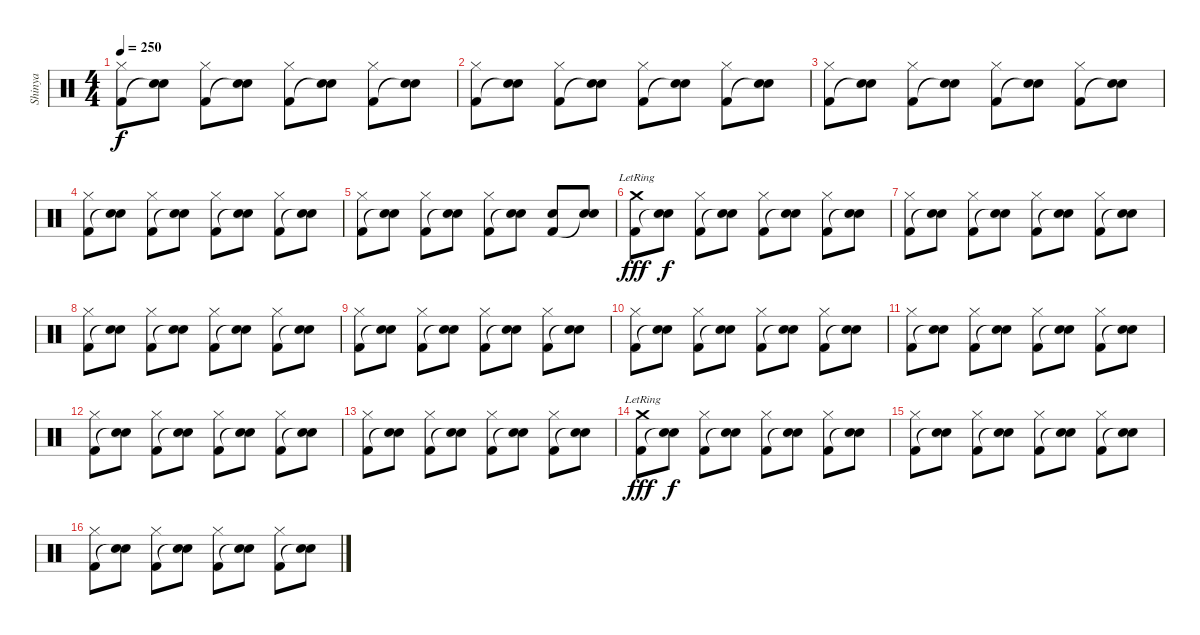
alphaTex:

\track ("Shinya" "Shinya") {instrument percussion}
\staff {score}
\articulation defaults
\ts (4 4)
\tempo 250
\clef neutral
\ks c
("Hi-Hat (closed)" "Kick (hit) 2").8{dy f} ("Electric Snare (hit)" "Snare (hit)"{t}).8 ("Hi-Hat (closed)" "Kick (hit) 2").8 ("Electric Snare (hit)" "Snare (hit)"{t}).8 ("Hi-Hat (closed)" "Kick (hit) 2").8 ("Electric Snare (hit)" "Snare (hit)"{t}).8 ("Hi-Hat (closed)" "Kick (hit) 2").8 ("Electric Snare (hit)" "Snare (hit)"{t}).8 |
("Hi-Hat (closed)" "Kick (hit) 2").8 ("Electric Snare (hit)" "Snare (hit)"{t}).8 ("Hi-Hat (closed)" "Kick (hit) 2").8 ("Electric Snare (hit)" "Snare (hit)"{t}).8 ("Hi-Hat (closed)" "Kick (hit) 2").8 ("Electric Snare (hit)" "Snare (hit)"{t}).8 ("Hi-Hat (closed)" "Kick (hit) 2").8 ("Electric Snare (hit)" "Snare (hit)"{t}).8 |
("Hi-Hat (closed)" "Kick (hit) 2").8 ("Electric Snare (hit)" "Snare (hit)"{t}).8 ("Hi-Hat (closed)" "Kick (hit) 2").8 ("Electric Snare (hit)" "Snare (hit)"{t}).8 ("Hi-Hat (closed)" "Kick (hit) 2").8 ("Electric Snare (hit)" "Snare (hit)"{t}).8 ("Hi-Hat (closed)" "Kick (hit) 2").8 ("Electric Snare (hit)" "Snare (hit)"{t}).8 |
("Hi-Hat (closed)" "Kick (hit) 2").8 ("Electric Snare (hit)" "Snare (hit)"{t}).8 ("Hi-Hat (closed)" "Kick (hit) 2").8 ("Electric Snare (hit)" "Snare (hit)"{t}).8 ("Hi-Hat (closed)" "Kick (hit) 2").8 ("Electric Snare (hit)" "Snare (hit)"{t}).8 ("Hi-Hat (closed)" "Kick (hit) 2").8 ("Electric Snare (hit)" "Snare (hit)"{t}).8 |
("Hi-Hat (closed)" "Kick (hit) 2").8 ("Electric Snare (hit)" "Snare (hit)"{t}).8 ("Hi-Hat (closed)" "Kick (hit) 2").8 ("Electric Snare (hit)" "Snare (hit)"{t}).8 ("Hi-Hat (closed)" "Kick (hit) 2").8 ("Electric Snare (hit)" "Snare (hit)"{t}).8 ("Electric Snare (hit)" "Kick (hit) 2").8 ("Electric Snare (hit)" "Snare (hit)"{t}).8 |
("Crash medium (hit)"{lr} "Kick (hit) 2").8{dy fff} ("Electric Snare (hit)" "Snare (hit)"{t}).8{dy f} ("Hi-Hat (closed)" "Kick (hit) 2").8 ("Electric Snare (hit)" "Snare (hit)"{t}).8 ("Hi-Hat (closed)" "Kick (hit) 2").8 ("Electric Snare (hit)" "Snare (hit)"{t}).8 ("Hi-Hat (closed)" "Kick (hit) 2").8 ("Electric Snare (hit)" "Snare (hit)"{t}).8 |
("Hi-Hat (closed)" "Kick (hit) 2").8 ("Electric Snare (hit)" "Snare (hit)"{t}).8 ("Hi-Hat (closed)" "Kick (hit) 2").8 ("Electric Snare (hit)" "Snare (hit)"{t}).8 ("Hi-Hat (closed)" "Kick (hit) 2").8 ("Electric Snare (hit)" "Snare (hit)"{t}).8 ("Hi-Hat (closed)" "Kick (hit) 2").8 ("Electric Snare (hit)" "Snare (hit)"{t}).8 |
("Hi-Hat (closed)" "Kick (hit) 2").8 ("Electric Snare (hit)" "Snare (hit)"{t}).8 ("Hi-Hat (closed)" "Kick (hit) 2").8 ("Electric Snare (hit)" "Snare (hit)"{t}).8 ("Hi-Hat (closed)" "Kick (hit) 2").8 ("Electric Snare (hit)" "Snare (hit)"{t}).8 ("Hi-Hat (closed)" "Kick (hit) 2").8 ("Electric Snare (hit)" "Snare (hit)"{t}).8 |
("Hi-Hat (closed)" "Kick (hit) 2").8 ("Electric Snare (hit)" "Snare (hit)"{t}).8 ("Hi-Hat (closed)" "Kick (hit) 2").8 ("Electric Snare (hit)" "Snare (hit)"{t}).8 ("Hi-Hat (closed)" "Kick (hit) 2").8 ("Electric Snare (hit)" "Snare (hit)"{t}).8 ("Hi-Hat (closed)" "Kick (hit) 2").8 ("Electric Snare (hit)" "Snare (hit)"{t}).8 |
("Hi-Hat (closed)" "Kick (hit) 2").8 ("Electric Snare (hit)" "Snare (hit)"{t}).8 ("Hi-Hat (closed)" "Kick (hit) 2").8 ("Electric Snare (hit)" "Snare (hit)"{t}).8 ("Hi-Hat (closed)" "Kick (hit) 2").8 ("Electric Snare (hit)" "Snare (hit)"{t}).8 ("Hi-Hat (closed)" "Kick (hit) 2").8 ("Electric Snare (hit)" "Snare (hit)"{t}).8 |
("Hi-Hat (closed)" "Kick (hit) 2").8 ("Electric Snare (hit)" "Snare (hit)"{t}).8 ("Hi-Hat (closed)" "Kick (hit) 2").8 ("Electric Snare (hit)" "Snare (hit)"{t}).8 ("Hi-Hat (closed)" "Kick (hit) 2").8 ("Electric Snare (hit)" "Snare (hit)"{t}).8 ("Hi-Hat (closed)" "Kick (hit) 2").8 ("Electric Snare (hit)" "Snare (hit)"{t}).8 |
("Hi-Hat (closed)" "Kick (hit) 2").8 ("Electric Snare (hit)" "Snare (hit)"{t}).8 ("Hi-Hat (closed)" "Kick (hit) 2").8 ("Electric Snare (hit)" "Snare (hit)"{t}).8 ("Hi-Hat (closed)" "Kick (hit) 2").8 ("Electric Snare (hit)" "Snare (hit)"{t}).8 ("Hi-Hat (closed)" "Kick (hit) 2").8 ("Electric Snare (hit)" "Snare (hit)"{t}).8 |
("Hi-Hat (closed)" "Kick (hit) 2").8 ("Electric Snare (hit)" "Snare (hit)"{t}).8 ("Hi-Hat (closed)" "Kick (hit) 2").8 ("Electric Snare (hit)" "Snare (hit)"{t}).8 ("Hi-Hat (closed)" "Kick (hit) 2").8 ("Electric Snare (hit)" "Snare (hit)"{t}).8 ("Hi-Hat (closed)" "Kick (hit) 2").8 ("Electric Snare (hit)" "Snare (hit)"{t}).8 |
("Crash medium (hit)"{lr} "Kick (hit) 2").8{dy fff} ("Electric Snare (hit)" "Snare (hit)"{t}).8{dy f} ("Hi-Hat (closed)" "Kick (hit) 2").8 ("Electric Snare (hit)" "Snare (hit)"{t}).8 ("Hi-Hat (closed)" "Kick (hit) 2").8 ("Electric Snare (hit)" "Snare (hit)"{t}).8 ("Hi-Hat (closed)" "Kick (hit) 2").8 ("Electric Snare (hit)" "Snare (hit)"{t}).8 |
("Hi-Hat (closed)" "Kick (hit) 2").8 ("Electric Snare (hit)" "Snare (hit)"{t}).8 ("Hi-Hat (closed)" "Kick (hit) 2").8 ("Electric Snare (hit)" "Snare (hit)"{t}).8 ("Hi-Hat (closed)" "Kick (hit) 2").8 ("Electric Snare (hit)" "Snare (hit)"{t}).8 ("Hi-Hat (closed)" "Kick (hit) 2").8 ("Electric Snare (hit)" "Snare (hit)"{t}).8 |
("Hi-Hat (closed)" "Kick (hit) 2").8 ("Electric Snare (hit)" "Snare (hit)"{t}).8 ("Hi-Hat (closed)" "Kick (hit) 2").8 ("Electric Snare (hit)" "Snare (hit)"{t}).8 ("Hi-Hat (closed)" "Kick (hit) 2").8 ("Electric Snare (hit)" "Snare (hit)"{t}).8 ("Hi-Hat (closed)" "Kick (hit) 2").8 ("Electric Snare (hit)" "Snare (hit)"{t}).8
